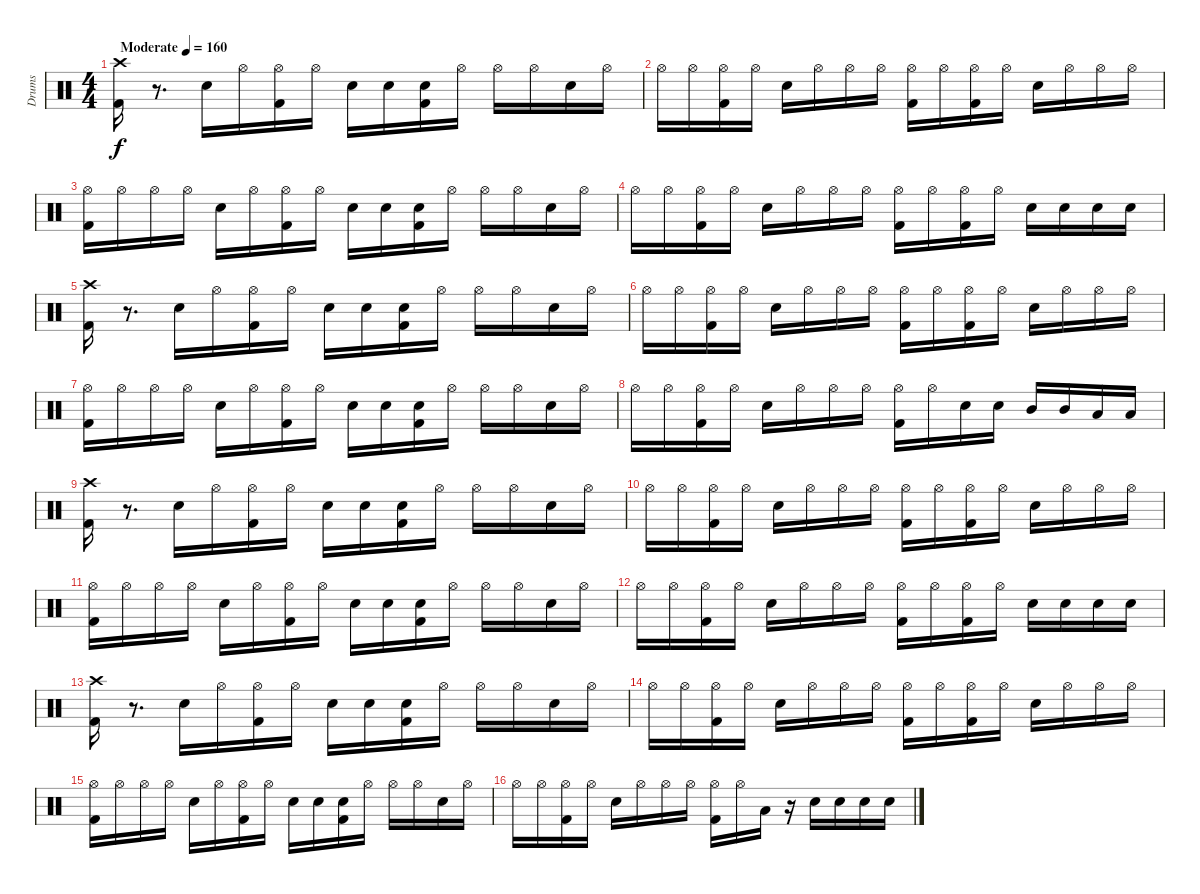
\track ("Drums" "Drums") {instrument percussion}
\staff {score}
\articulation defaults
\ts (4 4)
\tempo (160 "Moderate")
\clef neutral
\ks c
("Crash high (hit)" "Kick (hit) 2").16{dy f} r.8{d} "Electric Snare (hit)".16 "Hi-Hat (open)".16 ("Hi-Hat (open)" "Kick (hit) 2").16 "Hi-Hat (open)".16 "Electric Snare (hit)".16 "Electric Snare (hit)".16 ("Electric Snare (hit)" "Kick (hit) 2").16 "Hi-Hat (open)".16 "Hi-Hat (open)".16 "Hi-Hat (open)".16 "Electric Snare (hit)".16 "Hi-Hat (open)".16 |
"Hi-Hat (open)".16 "Hi-Hat (open)".16 ("Hi-Hat (open)" "Kick (hit) 2").16 "Hi-Hat (open)".16 "Electric Snare (hit)".16 "Hi-Hat (open)".16 "Hi-Hat (open)".16 "Hi-Hat (open)".16 ("Hi-Hat (open)" "Kick (hit) 2").16 "Hi-Hat (open)".16 ("Hi-Hat (open)" "Kick (hit) 2").16 "Hi-Hat (open)".16 "Electric Snare (hit)".16 "Hi-Hat (open)".16 "Hi-Hat (open)".16 "Hi-Hat (open)".16 |
("Hi-Hat (open)" "Kick (hit) 2").16 "Hi-Hat (open)".16 "Hi-Hat (open)".16 "Hi-Hat (open)".16 "Electric Snare (hit)".16 "Hi-Hat (open)".16 ("Hi-Hat (open)" "Kick (hit) 2").16 "Hi-Hat (open)".16 "Electric Snare (hit)".16 "Electric Snare (hit)".16 ("Electric Snare (hit)" "Kick (hit) 2").16 "Hi-Hat (open)".16 "Hi-Hat (open)".16 "Hi-Hat (open)".16 "Electric Snare (hit)".16 "Hi-Hat (open)".16 |
"Hi-Hat (open)".16 "Hi-Hat (open)".16 ("Hi-Hat (open)" "Kick (hit) 2").16 "Hi-Hat (open)".16 "Electric Snare (hit)".16 "Hi-Hat (open)".16 "Hi-Hat (open)".16 "Hi-Hat (open)".16 ("Hi-Hat (open)" "Kick (hit) 2").16 "Hi-Hat (open)".16 ("Hi-Hat (open)" "Kick (hit) 2").16 "Hi-Hat (open)".16 "Electric Snare (hit)".16 "Electric Snare (hit)".16 "Electric Snare (hit)".16 "Electric Snare (hit)".16 |
("Crash high (hit)" "Kick (hit) 2").16 r.8{d} "Electric Snare (hit)".16 "Hi-Hat (open)".16 ("Hi-Hat (open)" "Kick (hit) 2").16 "Hi-Hat (open)".16 "Electric Snare (hit)".16 "Electric Snare (hit)".16 ("Electric Snare (hit)" "Kick (hit) 2").16 "Hi-Hat (open)".16 "Hi-Hat (open)".16 "Hi-Hat (open)".16 "Electric Snare (hit)".16 "Hi-Hat (open)".16 |
"Hi-Hat (open)".16 "Hi-Hat (open)".16 ("Hi-Hat (open)" "Kick (hit) 2").16 "Hi-Hat (open)".16 "Electric Snare (hit)".16 "Hi-Hat (open)".16 "Hi-Hat (open)".16 "Hi-Hat (open)".16 ("Hi-Hat (open)" "Kick (hit) 2").16 "Hi-Hat (open)".16 ("Hi-Hat (open)" "Kick (hit) 2").16 "Hi-Hat (open)".16 "Electric Snare (hit)".16 "Hi-Hat (open)".16 "Hi-Hat (open)".16 "Hi-Hat (open)".16 |
("Hi-Hat (open)" "Kick (hit) 2").16 "Hi-Hat (open)".16 "Hi-Hat (open)".16 "Hi-Hat (open)".16 "Electric Snare (hit)".16 "Hi-Hat (open)".16 ("Hi-Hat (open)" "Kick (hit) 2").16 "Hi-Hat (open)".16 "Electric Snare (hit)".16 "Electric Snare (hit)".16 ("Electric Snare (hit)" "Kick (hit) 2").16 "Hi-Hat (open)".16 "Hi-Hat (open)".16 "Hi-Hat (open)".16 "Electric Snare (hit)".16 "Hi-Hat (open)".16 |
"Hi-Hat (open)".16 "Hi-Hat (open)".16 ("Hi-Hat (open)" "Kick (hit) 2").16 "Hi-Hat (open)".16 "Electric Snare (hit)".16 "Hi-Hat (open)".16 "Hi-Hat (open)".16 "Hi-Hat (open)".16 ("Hi-Hat (open)" "Kick (hit) 2").16 "Hi-Hat (open)".16 "Electric Snare (hit)".16 "Electric Snare (hit)".16 "Mid Tom (hit)".16 "Mid Tom (hit)".16 "Low Tom (hit)".16 "Low Tom (hit)".16 |
("Crash high (hit)" "Kick (hit) 2").16 r.8{d} "Electric Snare (hit)".16 "Hi-Hat (open)".16 ("Hi-Hat (open)" "Kick (hit) 2").16 "Hi-Hat (open)".16 "Electric Snare (hit)".16 "Electric Snare (hit)".16 ("Electric Snare (hit)" "Kick (hit) 2").16 "Hi-Hat (open)".16 "Hi-Hat (open)".16 "Hi-Hat (open)".16 "Electric Snare (hit)".16 "Hi-Hat (open)".16 |
"Hi-Hat (open)".16 "Hi-Hat (open)".16 ("Hi-Hat (open)" "Kick (hit) 2").16 "Hi-Hat (open)".16 "Electric Snare (hit)".16 "Hi-Hat (open)".16 "Hi-Hat (open)".16 "Hi-Hat (open)".16 ("Hi-Hat (open)" "Kick (hit) 2").16 "Hi-Hat (open)".16 ("Hi-Hat (open)" "Kick (hit) 2").16 "Hi-Hat (open)".16 "Electric Snare (hit)".16 "Hi-Hat (open)".16 "Hi-Hat (open)".16 "Hi-Hat (open)".16 |
("Hi-Hat (open)" "Kick (hit) 2").16 "Hi-Hat (open)".16 "Hi-Hat (open)".16 "Hi-Hat (open)".16 "Electric Snare (hit)".16 "Hi-Hat (open)".16 ("Hi-Hat (open)" "Kick (hit) 2").16 "Hi-Hat (open)".16 "Electric Snare (hit)".16 "Electric Snare (hit)".16 ("Electric Snare (hit)" "Kick (hit) 2").16 "Hi-Hat (open)".16 "Hi-Hat (open)".16 "Hi-Hat (open)".16 "Electric Snare (hit)".16 "Hi-Hat (open)".16 |
"Hi-Hat (open)".16 "Hi-Hat (open)".16 ("Hi-Hat (open)" "Kick (hit) 2").16 "Hi-Hat (open)".16 "Electric Snare (hit)".16 "Hi-Hat (open)".16 "Hi-Hat (open)".16 "Hi-Hat (open)".16 ("Hi-Hat (open)" "Kick (hit) 2").16 "Hi-Hat (open)".16 ("Hi-Hat (open)" "Kick (hit) 2").16 "Hi-Hat (open)".16 "Electric Snare (hit)".16 "Electric Snare (hit)".16 "Electric Snare (hit)".16 "Electric Snare (hit)".16 |
("Crash high (hit)" "Kick (hit) 2").16 r.8{d} "Electric Snare (hit)".16 "Hi-Hat (open)".16 ("Hi-Hat (open)" "Kick (hit) 2").16 "Hi-Hat (open)".16 "Electric Snare (hit)".16 "Electric Snare (hit)".16 ("Electric Snare (hit)" "Kick (hit) 2").16 "Hi-Hat (open)".16 "Hi-Hat (open)".16 "Hi-Hat (open)".16 "Electric Snare (hit)".16 "Hi-Hat (open)".16 |
"Hi-Hat (open)".16 "Hi-Hat (open)".16 ("Hi-Hat (open)" "Kick (hit) 2").16 "Hi-Hat (open)".16 "Electric Snare (hit)".16 "Hi-Hat (open)".16 "Hi-Hat (open)".16 "Hi-Hat (open)".16 ("Hi-Hat (open)" "Kick (hit) 2").16 "Hi-Hat (open)".16 ("Hi-Hat (open)" "Kick (hit) 2").16 "Hi-Hat (open)".16 "Electric Snare (hit)".16 "Hi-Hat (open)".16 "Hi-Hat (open)".16 "Hi-Hat (open)".16 |
("Hi-Hat (open)" "Kick (hit) 2").16 "Hi-Hat (open)".16 "Hi-Hat (open)".16 "Hi-Hat (open)".16 "Electric Snare (hit)".16 "Hi-Hat (open)".16 ("Hi-Hat (open)" "Kick (hit) 2").16 "Hi-Hat (open)".16 "Electric Snare (hit)".16 "Electric Snare (hit)".16 ("Electric Snare (hit)" "Kick (hit) 2").16 "Hi-Hat (open)".16 "Hi-Hat (open)".16 "Hi-Hat (open)".16 "Electric Snare (hit)".16 "Hi-Hat (open)".16 |
"Hi-Hat (open)".16 "Hi-Hat (open)".16 ("Hi-Hat (open)" "Kick (hit) 2").16 "Hi-Hat (open)".16 "Electric Snare (hit)".16 "Hi-Hat (open)".16 "Hi-Hat (open)".16 "Hi-Hat (open)".16 ("Hi-Hat (open)" "Kick (hit) 2").16 "Hi-Hat (open)".16 "Low Tom (hit)".16 r.16 "Electric Snare (hit)".16 "Electric Snare (hit)".16 "Electric Snare (hit)".16 "Electric Snare (hit)".16
